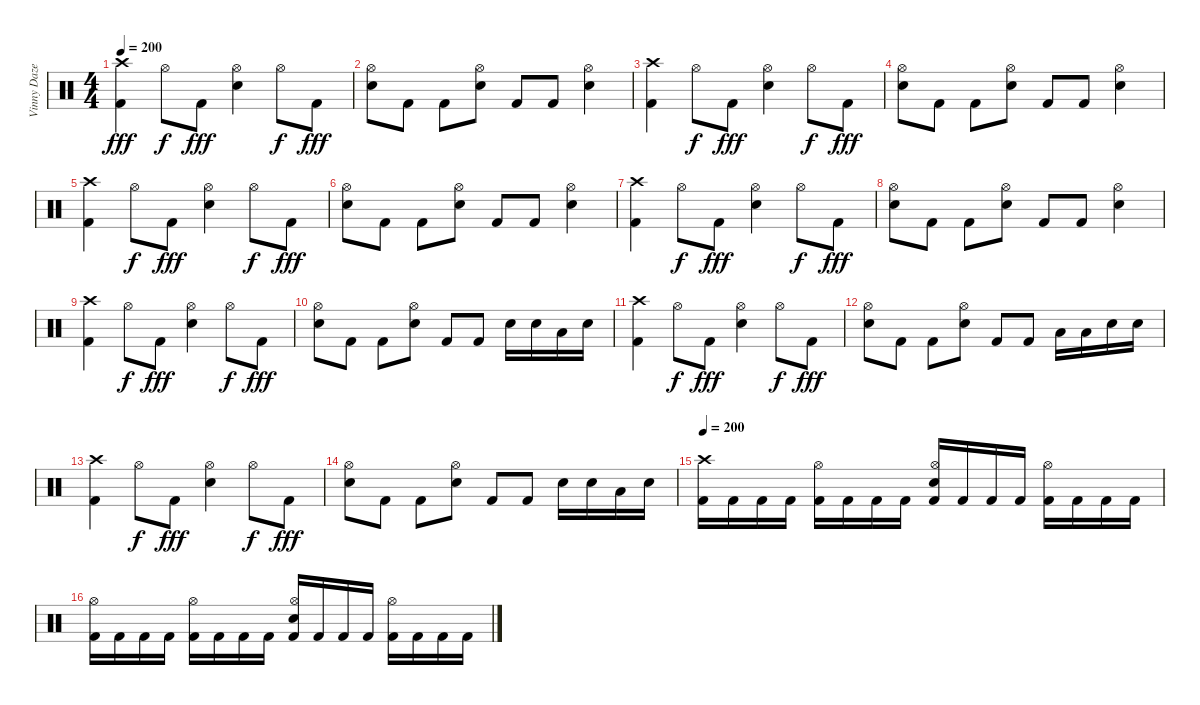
\track ("Vinny Daze (R.I.P.)" "Vinny Daze") {instrument percussion}
\staff {score}
\articulation defaults
\ts (4 4)
\tempo 200
\clef neutral
\ks c
("Crash high (hit)" "Kick (hit) 2").4{dy fff} "Hi-Hat (open)".8{dy f} "Kick (hit) 2".8{dy fff} ("Hi-Hat (open)" "Electric Snare (hit)").4 "Hi-Hat (open)".8{dy f} "Kick (hit) 2".8{dy fff} |
("Hi-Hat (open)" "Electric Snare (hit)").8 "Kick (hit) 2".8 "Kick (hit) 2".8 ("Hi-Hat (open)" "Electric Snare (hit)").8 "Kick (hit) 2".8 "Kick (hit) 2".8 ("Hi-Hat (open)" "Electric Snare (hit)").4 |
("Crash high (hit)" "Kick (hit) 2").4 "Hi-Hat (open)".8{dy f} "Kick (hit) 2".8{dy fff} ("Hi-Hat (open)" "Electric Snare (hit)").4 "Hi-Hat (open)".8{dy f} "Kick (hit) 2".8{dy fff} |
("Hi-Hat (open)" "Electric Snare (hit)").8 "Kick (hit) 2".8 "Kick (hit) 2".8 ("Hi-Hat (open)" "Electric Snare (hit)").8 "Kick (hit) 2".8 "Kick (hit) 2".8 ("Hi-Hat (open)" "Electric Snare (hit)").4 |
("Crash high (hit)" "Kick (hit) 2").4 "Hi-Hat (open)".8{dy f} "Kick (hit) 2".8{dy fff} ("Hi-Hat (open)" "Electric Snare (hit)").4 "Hi-Hat (open)".8{dy f} "Kick (hit) 2".8{dy fff} |
("Hi-Hat (open)" "Electric Snare (hit)").8 "Kick (hit) 2".8 "Kick (hit) 2".8 ("Hi-Hat (open)" "Electric Snare (hit)").8 "Kick (hit) 2".8 "Kick (hit) 2".8 ("Hi-Hat (open)" "Electric Snare (hit)").4 |
("Crash high (hit)" "Kick (hit) 2").4 "Hi-Hat (open)".8{dy f} "Kick (hit) 2".8{dy fff} ("Hi-Hat (open)" "Electric Snare (hit)").4 "Hi-Hat (open)".8{dy f} "Kick (hit) 2".8{dy fff} |
("Hi-Hat (open)" "Electric Snare (hit)").8 "Kick (hit) 2".8 "Kick (hit) 2".8 ("Hi-Hat (open)" "Electric Snare (hit)").8 "Kick (hit) 2".8 "Kick (hit) 2".8 ("Hi-Hat (open)" "Electric Snare (hit)").4 |
("Crash high (hit)" "Kick (hit) 2").4 "Hi-Hat (open)".8{dy f} "Kick (hit) 2".8{dy fff} ("Hi-Hat (open)" "Electric Snare (hit)").4 "Hi-Hat (open)".8{dy f} "Kick (hit) 2".8{dy fff} |
("Hi-Hat (open)" "Electric Snare (hit)").8 "Kick (hit) 2".8 "Kick (hit) 2".8 ("Hi-Hat (open)" "Electric Snare (hit)").8 "Kick (hit) 2".8 "Kick (hit) 2".8 "Electric Snare (hit)".16 "Electric Snare (hit)".16 "Low Tom (hit)".16 "Electric Snare (hit)".16 |
("Crash high (hit)" "Kick (hit) 2").4 "Hi-Hat (open)".8{dy f} "Kick (hit) 2".8{dy fff} ("Hi-Hat (open)" "Electric Snare (hit)").4 "Hi-Hat (open)".8{dy f} "Kick (hit) 2".8{dy fff} |
("Hi-Hat (open)" "Electric Snare (hit)").8 "Kick (hit) 2".8 "Kick (hit) 2".8 ("Hi-Hat (open)" "Electric Snare (hit)").8 "Kick (hit) 2".8 "Kick (hit) 2".8 "Low Tom (hit)".16 "Low Tom (hit)".16 "Electric Snare (hit)".16 "Electric Snare (hit)".16 |
("Crash high (hit)" "Kick (hit) 2").4 "Hi-Hat (open)".8{dy f} "Kick (hit) 2".8{dy fff} ("Hi-Hat (open)" "Electric Snare (hit)").4 "Hi-Hat (open)".8{dy f} "Kick (hit) 2".8{dy fff} |
("Hi-Hat (open)" "Electric Snare (hit)").8 "Kick (hit) 2".8 "Kick (hit) 2".8 ("Hi-Hat (open)" "Electric Snare (hit)").8 "Kick (hit) 2".8 "Kick (hit) 2".8 "Electric Snare (hit)".16 "Electric Snare (hit)".16 "Low Tom (hit)".16 "Electric Snare (hit)".16 |
\tempo 200
("Crash high (hit)" "Kick (hit) 2").16 "Kick (hit) 2".16 "Kick (hit) 2".16 "Kick (hit) 2".16 ("Hi-Hat (open)" "Kick (hit) 2").16 "Kick (hit) 2".16 "Kick (hit) 2".16 "Kick (hit) 2".16 ("Hi-Hat (open)" "Electric Snare (hit)" "Kick (hit) 2").16 "Kick (hit) 2".16 "Kick (hit) 2".16 "Kick (hit) 2".16 ("Hi-Hat (open)" "Kick (hit) 2").16 "Kick (hit) 2".16 "Kick (hit) 2".16 "Kick (hit) 2".16 |
("Hi-Hat (open)" "Kick (hit) 2").16 "Kick (hit) 2".16 "Kick (hit) 2".16 "Kick (hit) 2".16 ("Hi-Hat (open)" "Kick (hit) 2").16 "Kick (hit) 2".16 "Kick (hit) 2".16 "Kick (hit) 2".16 ("Hi-Hat (open)" "Electric Snare (hit)" "Kick (hit) 2").16 "Kick (hit) 2".16 "Kick (hit) 2".16 "Kick (hit) 2".16 ("Hi-Hat (open)" "Kick (hit) 2").16 "Kick (hit) 2".16 "Kick (hit) 2".16 "Kick (hit) 2".16
